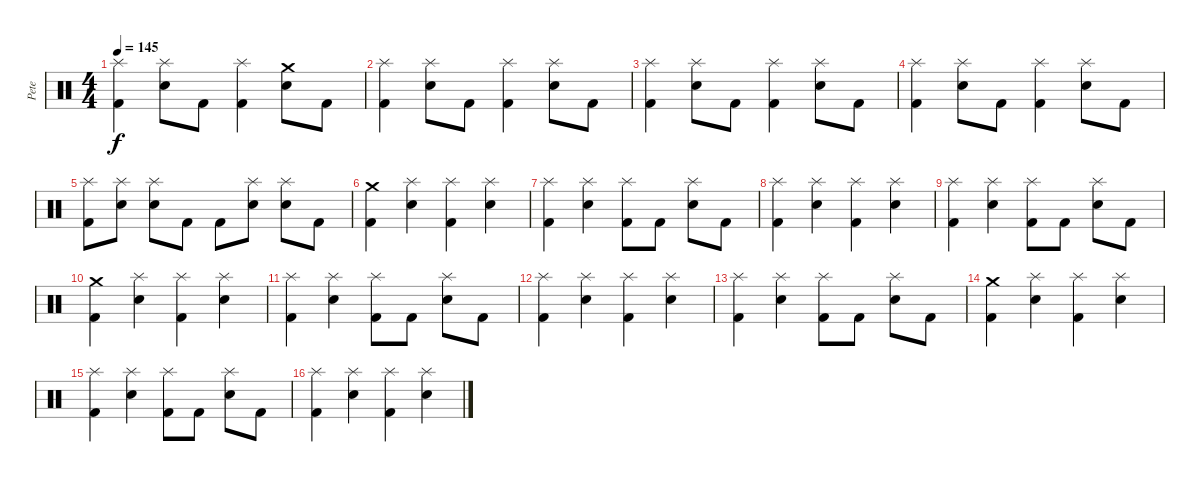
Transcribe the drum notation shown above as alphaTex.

\track ("Pete" "Pete") {instrument percussion}
\staff {score}
\articulation defaults
\ts (4 4)
\tempo 145
\clef neutral
\ks c
("Splash (hit)" "Kick (hit) 2").4{dy f} ("Splash (hit)" "Electric Snare (hit)").8 "Kick (hit) 2".8 ("Splash (hit)" "Kick (hit) 2").4 ("Crash medium (hit)" "Electric Snare (hit)").8 "Kick (hit) 2".8 |
("Splash (hit)" "Kick (hit) 2").4 ("Splash (hit)" "Electric Snare (hit)").8 "Kick (hit) 2".8 ("Splash (hit)" "Kick (hit) 2").4 ("Splash (hit)" "Electric Snare (hit)").8 "Kick (hit) 2".8 |
("Splash (hit)" "Kick (hit) 2").4 ("Splash (hit)" "Electric Snare (hit)").8 "Kick (hit) 2".8 ("Splash (hit)" "Kick (hit) 2").4 ("Splash (hit)" "Electric Snare (hit)").8 "Kick (hit) 2".8 |
("Splash (hit)" "Kick (hit) 2").4 ("Splash (hit)" "Electric Snare (hit)").8 "Kick (hit) 2".8 ("Splash (hit)" "Kick (hit) 2").4 ("Splash (hit)" "Electric Snare (hit)").8 "Kick (hit) 2".8 |
("Splash (hit)" "Kick (hit) 2").8 ("Splash (hit)" "Electric Snare (hit)").8 ("Splash (hit)" "Electric Snare (hit)").8 "Kick (hit) 2".8 "Kick (hit) 2".8 ("Splash (hit)" "Electric Snare (hit)").8 ("Splash (hit)" "Electric Snare (hit)").8 "Kick (hit) 2".8 |
("Crash medium (hit)" "Kick (hit) 2").4 ("Splash (hit)" "Electric Snare (hit)").4 ("Splash (hit)" "Kick (hit) 2").4 ("Splash (hit)" "Electric Snare (hit)").4 |
("Splash (hit)" "Kick (hit) 2").4 ("Splash (hit)" "Electric Snare (hit)").4 ("Splash (hit)" "Kick (hit) 2").8 "Kick (hit) 2".8 ("Splash (hit)" "Electric Snare (hit)").8 "Kick (hit) 2".8 |
("Splash (hit)" "Kick (hit) 2").4 ("Splash (hit)" "Electric Snare (hit)").4 ("Splash (hit)" "Kick (hit) 2").4 ("Splash (hit)" "Electric Snare (hit)").4 |
("Splash (hit)" "Kick (hit) 2").4 ("Splash (hit)" "Electric Snare (hit)").4 ("Splash (hit)" "Kick (hit) 2").8 "Kick (hit) 2".8 ("Splash (hit)" "Electric Snare (hit)").8 "Kick (hit) 2".8 |
("Crash medium (hit)" "Kick (hit) 2").4 ("Splash (hit)" "Electric Snare (hit)").4 ("Splash (hit)" "Kick (hit) 2").4 ("Splash (hit)" "Electric Snare (hit)").4 |
("Splash (hit)" "Kick (hit) 2").4 ("Splash (hit)" "Electric Snare (hit)").4 ("Splash (hit)" "Kick (hit) 2").8 "Kick (hit) 2".8 ("Splash (hit)" "Electric Snare (hit)").8 "Kick (hit) 2".8 |
("Splash (hit)" "Kick (hit) 2").4 ("Splash (hit)" "Electric Snare (hit)").4 ("Splash (hit)" "Kick (hit) 2").4 ("Splash (hit)" "Electric Snare (hit)").4 |
("Splash (hit)" "Kick (hit) 2").4 ("Splash (hit)" "Electric Snare (hit)").4 ("Splash (hit)" "Kick (hit) 2").8 "Kick (hit) 2".8 ("Splash (hit)" "Electric Snare (hit)").8 "Kick (hit) 2".8 |
("Crash medium (hit)" "Kick (hit) 2").4 ("Splash (hit)" "Electric Snare (hit)").4 ("Splash (hit)" "Kick (hit) 2").4 ("Splash (hit)" "Electric Snare (hit)").4 |
("Splash (hit)" "Kick (hit) 2").4 ("Splash (hit)" "Electric Snare (hit)").4 ("Splash (hit)" "Kick (hit) 2").8 "Kick (hit) 2".8 ("Splash (hit)" "Electric Snare (hit)").8 "Kick (hit) 2".8 |
("Splash (hit)" "Kick (hit) 2").4 ("Splash (hit)" "Electric Snare (hit)").4 ("Splash (hit)" "Kick (hit) 2").4 ("Splash (hit)" "Electric Snare (hit)").4
